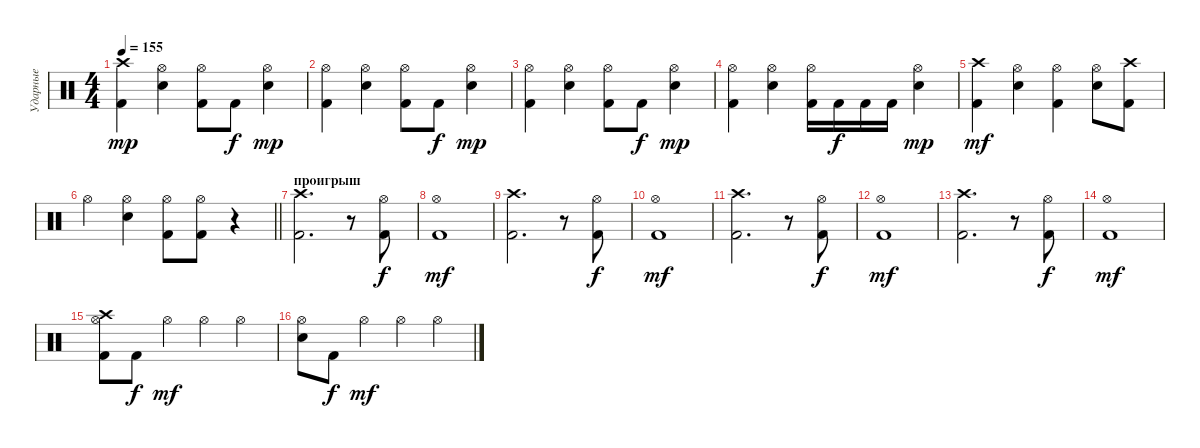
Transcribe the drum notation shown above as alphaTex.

\track ("Ударные" "Ударные") {instrument percussion}
\staff {score}
\articulation defaults
\ts (4 4)
\tempo 155
\clef neutral
\ks c
("Kick (hit) 2" "Crash high (hit)").4{dy mp} ("Snare (hit) 2" "Hi-Hat (open)").4 ("Kick (hit) 2" "Hi-Hat (open)").8 "Kick (hit) 2".8{dy f} ("Snare (hit) 2" "Hi-Hat (open)").4{dy mp} |
("Kick (hit) 2" "Hi-Hat (open)").4 ("Snare (hit) 2" "Hi-Hat (open)").4 ("Kick (hit) 2" "Hi-Hat (open)").8 "Kick (hit) 2".8{dy f} ("Snare (hit) 2" "Hi-Hat (open)").4{dy mp} |
("Kick (hit) 2" "Hi-Hat (open)").4 ("Snare (hit) 2" "Hi-Hat (open)").4 ("Kick (hit) 2" "Hi-Hat (open)").8 "Kick (hit) 2".8{dy f} ("Snare (hit) 2" "Hi-Hat (open)").4{dy mp} |
("Kick (hit) 2" "Hi-Hat (open)").4 ("Snare (hit) 2" "Hi-Hat (open)").4 ("Kick (hit) 2" "Hi-Hat (open)").16 "Kick (hit) 2".16{dy f} "Kick (hit) 2".16 "Kick (hit) 2".16 ("Snare (hit) 2" "Hi-Hat (open)").4{dy mp} |
("Kick (hit) 2" "Crash high (hit)").4{dy mf} ("Snare (hit) 2" "Hi-Hat (open)").4 ("Kick (hit) 2" "Hi-Hat (open)").4 ("Snare (hit) 2" "Hi-Hat (open)").8 ("Kick (hit) 2" "Crash high (hit)").8 |
\barLineRight lightlight "Hi-Hat (open)".4
("Snare (hit) 2" "Hi-Hat (open)").4 ("Kick (hit) 2" "Hi-Hat (open)").8 ("Kick (hit) 2" "Hi-Hat (open)").8 r.4 |
\section ("" "проигрыш")
("Kick (hit) 2" "Crash high (hit)").2{d} r.8 ("Kick (hit) 2" "Hi-Hat (open)").8{dy f} |
("Kick (hit) 2" "Hi-Hat (open)").1{dy mf} |
("Kick (hit) 2" "Crash high (hit)").2{d} r.8 ("Kick (hit) 2" "Hi-Hat (open)").8{dy f} |
("Kick (hit) 2" "Hi-Hat (open)").1{dy mf} |
("Kick (hit) 2" "Crash high (hit)").2{d} r.8 ("Kick (hit) 2" "Hi-Hat (open)").8{dy f} |
("Kick (hit) 2" "Hi-Hat (open)").1{dy mf} |
("Kick (hit) 2" "Crash high (hit)").2{d} r.8 ("Kick (hit) 2" "Hi-Hat (open)").8{dy f} |
("Kick (hit) 2" "Hi-Hat (open)").1{dy mf} |
("Kick (hit) 2" "Hi-Hat (open)" "Crash high (hit)").8 "Kick (hit) 2".8{dy f} "Hi-Hat (open)".4{dy mf} "Hi-Hat (open)".4 "Hi-Hat (open)".4 |
("Snare (hit) 2" "Hi-Hat (open)").8 "Kick (hit) 2".8{dy f} "Hi-Hat (open)".4{dy mf} "Hi-Hat (open)".4 "Hi-Hat (open)".4
